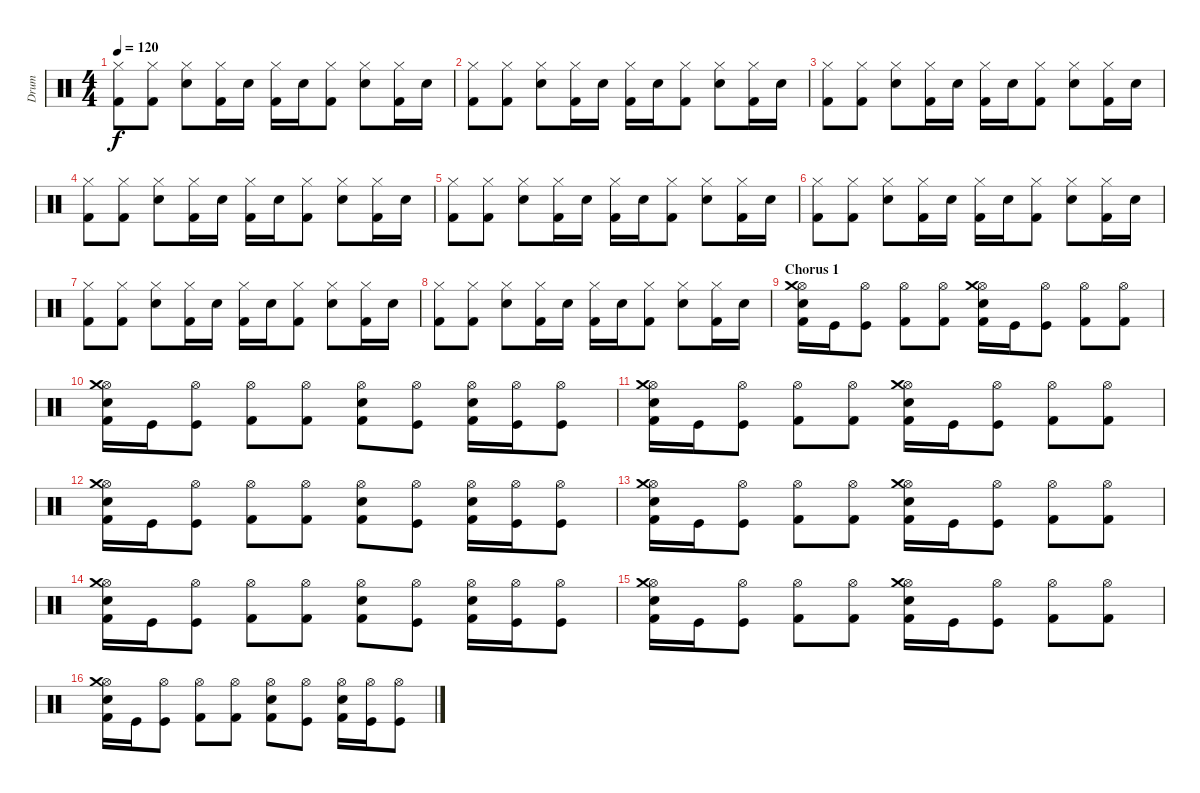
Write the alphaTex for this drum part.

\track ("Drum" "Drum") {instrument percussion}
\staff {score}
\articulation defaults
\ts (4 4)
\tempo 120
\clef neutral
\ks c
("Hi-Hat (closed)" "Kick (hit) 2").8{dy f} ("Hi-Hat (closed)" "Kick (hit) 2").8 ("Hi-Hat (closed)" "Electric Snare (hit)").8 ("Hi-Hat (closed)" "Kick (hit) 2").16 "Electric Snare (hit)".16 ("Hi-Hat (closed)" "Kick (hit) 2").16 "Electric Snare (hit)".16 ("Hi-Hat (closed)" "Kick (hit) 2").8 ("Hi-Hat (closed)" "Electric Snare (hit)").8 ("Hi-Hat (closed)" "Kick (hit) 2").16 "Electric Snare (hit)".16 |
("Hi-Hat (closed)" "Kick (hit) 2").8 ("Hi-Hat (closed)" "Kick (hit) 2").8 ("Hi-Hat (closed)" "Electric Snare (hit)").8 ("Hi-Hat (closed)" "Kick (hit) 2").16 "Electric Snare (hit)".16 ("Hi-Hat (closed)" "Kick (hit) 2").16 "Electric Snare (hit)".16 ("Hi-Hat (closed)" "Kick (hit) 2").8 ("Hi-Hat (closed)" "Electric Snare (hit)").8 ("Hi-Hat (closed)" "Kick (hit) 2").16 "Electric Snare (hit)".16 |
("Hi-Hat (closed)" "Kick (hit) 2").8 ("Hi-Hat (closed)" "Kick (hit) 2").8 ("Hi-Hat (closed)" "Electric Snare (hit)").8 ("Hi-Hat (closed)" "Kick (hit) 2").16 "Electric Snare (hit)".16 ("Hi-Hat (closed)" "Kick (hit) 2").16 "Electric Snare (hit)".16 ("Hi-Hat (closed)" "Kick (hit) 2").8 ("Hi-Hat (closed)" "Electric Snare (hit)").8 ("Hi-Hat (closed)" "Kick (hit) 2").16 "Electric Snare (hit)".16 |
("Hi-Hat (closed)" "Kick (hit) 2").8 ("Hi-Hat (closed)" "Kick (hit) 2").8 ("Hi-Hat (closed)" "Electric Snare (hit)").8 ("Hi-Hat (closed)" "Kick (hit) 2").16 "Electric Snare (hit)".16 ("Hi-Hat (closed)" "Kick (hit) 2").16 "Electric Snare (hit)".16 ("Hi-Hat (closed)" "Kick (hit) 2").8 ("Hi-Hat (closed)" "Electric Snare (hit)").8 ("Hi-Hat (closed)" "Kick (hit) 2").16 "Electric Snare (hit)".16 |
("Hi-Hat (closed)" "Kick (hit) 2").8 ("Hi-Hat (closed)" "Kick (hit) 2").8 ("Hi-Hat (closed)" "Electric Snare (hit)").8 ("Hi-Hat (closed)" "Kick (hit) 2").16 "Electric Snare (hit)".16 ("Hi-Hat (closed)" "Kick (hit) 2").16 "Electric Snare (hit)".16 ("Hi-Hat (closed)" "Kick (hit) 2").8 ("Hi-Hat (closed)" "Electric Snare (hit)").8 ("Hi-Hat (closed)" "Kick (hit) 2").16 "Electric Snare (hit)".16 |
("Hi-Hat (closed)" "Kick (hit) 2").8 ("Hi-Hat (closed)" "Kick (hit) 2").8 ("Hi-Hat (closed)" "Electric Snare (hit)").8 ("Hi-Hat (closed)" "Kick (hit) 2").16 "Electric Snare (hit)".16 ("Hi-Hat (closed)" "Kick (hit) 2").16 "Electric Snare (hit)".16 ("Hi-Hat (closed)" "Kick (hit) 2").8 ("Hi-Hat (closed)" "Electric Snare (hit)").8 ("Hi-Hat (closed)" "Kick (hit) 2").16 "Electric Snare (hit)".16 |
("Hi-Hat (closed)" "Kick (hit) 2").8 ("Hi-Hat (closed)" "Kick (hit) 2").8 ("Hi-Hat (closed)" "Electric Snare (hit)").8 ("Hi-Hat (closed)" "Kick (hit) 2").16 "Electric Snare (hit)".16 ("Hi-Hat (closed)" "Kick (hit) 2").16 "Electric Snare (hit)".16 ("Hi-Hat (closed)" "Kick (hit) 2").8 ("Hi-Hat (closed)" "Electric Snare (hit)").8 ("Hi-Hat (closed)" "Kick (hit) 2").16 "Electric Snare (hit)".16 |
("Hi-Hat (closed)" "Kick (hit) 2").8 ("Hi-Hat (closed)" "Kick (hit) 2").8 ("Hi-Hat (closed)" "Electric Snare (hit)").8 ("Hi-Hat (closed)" "Kick (hit) 2").16 "Electric Snare (hit)".16 ("Hi-Hat (closed)" "Kick (hit) 2").16 "Electric Snare (hit)".16 ("Hi-Hat (closed)" "Kick (hit) 2").8 ("Hi-Hat (closed)" "Electric Snare (hit)").8 ("Hi-Hat (closed)" "Kick (hit) 2").16 "Electric Snare (hit)".16 |
\section ("" "Chorus 1")
("Hi-Hat (open)" "Crash medium (hit)" "Snare (hit) 2" "Kick (hit) 2").16 "Kick (hit)".16 ("Hi-Hat (open)" "Kick (hit)").8 ("Hi-Hat (open)" "Kick (hit) 2").8 ("Hi-Hat (open)" "Kick (hit) 2").8 ("Hi-Hat (open)" "Crash medium (hit)" "Snare (hit) 2" "Kick (hit) 2").16 "Kick (hit)".16 ("Hi-Hat (open)" "Kick (hit)").8 ("Hi-Hat (open)" "Kick (hit) 2").8 ("Hi-Hat (open)" "Kick (hit) 2").8 |
("Hi-Hat (open)" "Crash medium (hit)" "Snare (hit) 2" "Kick (hit) 2").16 "Kick (hit)".16 ("Hi-Hat (open)" "Kick (hit)").8 ("Hi-Hat (open)" "Kick (hit) 2").8 ("Hi-Hat (open)" "Kick (hit) 2").8 ("Hi-Hat (open)" "Snare (hit) 2" "Kick (hit) 2").8 ("Hi-Hat (open)" "Kick (hit)").8 ("Hi-Hat (open)" "Snare (hit) 2" "Kick (hit) 2").16 ("Hi-Hat (open)" "Kick (hit)").16 ("Hi-Hat (open)" "Kick (hit)").8 |
("Hi-Hat (open)" "Crash medium (hit)" "Snare (hit) 2" "Kick (hit) 2").16 "Kick (hit)".16 ("Hi-Hat (open)" "Kick (hit)").8 ("Hi-Hat (open)" "Kick (hit) 2").8 ("Hi-Hat (open)" "Kick (hit) 2").8 ("Hi-Hat (open)" "Crash medium (hit)" "Snare (hit) 2" "Kick (hit) 2").16 "Kick (hit)".16 ("Hi-Hat (open)" "Kick (hit)").8 ("Hi-Hat (open)" "Kick (hit) 2").8 ("Hi-Hat (open)" "Kick (hit) 2").8 |
("Hi-Hat (open)" "Crash medium (hit)" "Snare (hit) 2" "Kick (hit) 2").16 "Kick (hit)".16 ("Hi-Hat (open)" "Kick (hit)").8 ("Hi-Hat (open)" "Kick (hit) 2").8 ("Hi-Hat (open)" "Kick (hit) 2").8 ("Hi-Hat (open)" "Snare (hit) 2" "Kick (hit) 2").8 ("Hi-Hat (open)" "Kick (hit)").8 ("Hi-Hat (open)" "Snare (hit) 2" "Kick (hit) 2").16 ("Hi-Hat (open)" "Kick (hit)").16 ("Hi-Hat (open)" "Kick (hit)").8 |
("Hi-Hat (open)" "Crash medium (hit)" "Snare (hit) 2" "Kick (hit) 2").16 "Kick (hit)".16 ("Hi-Hat (open)" "Kick (hit)").8 ("Hi-Hat (open)" "Kick (hit) 2").8 ("Hi-Hat (open)" "Kick (hit) 2").8 ("Hi-Hat (open)" "Crash medium (hit)" "Snare (hit) 2" "Kick (hit) 2").16 "Kick (hit)".16 ("Hi-Hat (open)" "Kick (hit)").8 ("Hi-Hat (open)" "Kick (hit) 2").8 ("Hi-Hat (open)" "Kick (hit) 2").8 |
("Hi-Hat (open)" "Crash medium (hit)" "Snare (hit) 2" "Kick (hit) 2").16 "Kick (hit)".16 ("Hi-Hat (open)" "Kick (hit)").8 ("Hi-Hat (open)" "Kick (hit) 2").8 ("Hi-Hat (open)" "Kick (hit) 2").8 ("Hi-Hat (open)" "Snare (hit) 2" "Kick (hit) 2").8 ("Hi-Hat (open)" "Kick (hit)").8 ("Hi-Hat (open)" "Snare (hit) 2" "Kick (hit) 2").16 ("Hi-Hat (open)" "Kick (hit)").16 ("Hi-Hat (open)" "Kick (hit)").8 |
("Hi-Hat (open)" "Crash medium (hit)" "Snare (hit) 2" "Kick (hit) 2").16 "Kick (hit)".16 ("Hi-Hat (open)" "Kick (hit)").8 ("Hi-Hat (open)" "Kick (hit) 2").8 ("Hi-Hat (open)" "Kick (hit) 2").8 ("Hi-Hat (open)" "Crash medium (hit)" "Snare (hit) 2" "Kick (hit) 2").16 "Kick (hit)".16 ("Hi-Hat (open)" "Kick (hit)").8 ("Hi-Hat (open)" "Kick (hit) 2").8 ("Hi-Hat (open)" "Kick (hit) 2").8 |
("Hi-Hat (open)" "Crash medium (hit)" "Snare (hit) 2" "Kick (hit) 2").16 "Kick (hit)".16 ("Hi-Hat (open)" "Kick (hit)").8 ("Hi-Hat (open)" "Kick (hit) 2").8 ("Hi-Hat (open)" "Kick (hit) 2").8 ("Hi-Hat (open)" "Snare (hit) 2" "Kick (hit) 2").8 ("Hi-Hat (open)" "Kick (hit)").8 ("Hi-Hat (open)" "Snare (hit) 2" "Kick (hit) 2").16 ("Hi-Hat (open)" "Kick (hit)").16 ("Hi-Hat (open)" "Kick (hit)").8
